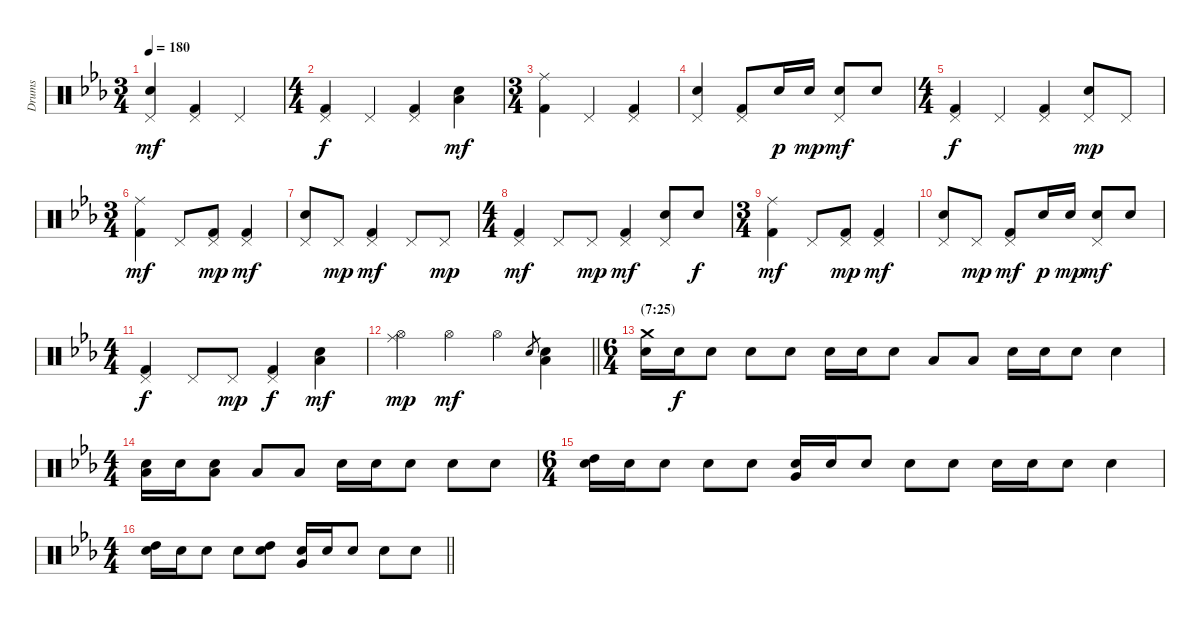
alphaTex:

\track ("Drums" "Drums") {instrument percussion}
\staff {score}
\articulation defaults
\ts (3 4)
\tempo 180
\clef neutral
\ks eb
("Pedal Hi-Hat (hit)" "Electric Snare (hit)").4{dy mf} ("Pedal Hi-Hat (hit)" "Kick (hit) 2").4 "Pedal Hi-Hat (hit)".4 |
\ts (4 4)
("Pedal Hi-Hat (hit)" "Kick (hit) 2").4{dy f} "Pedal Hi-Hat (hit)".4 ("Pedal Hi-Hat (hit)" "Kick (hit) 2").4 ("Low Floor Tom (hit)" "Electric Snare (hit)").4{dy mf} |
\ts (3 4)
("Ride (middle)" "Kick (hit) 2").4 "Pedal Hi-Hat (hit)".4 ("Pedal Hi-Hat (hit)" "Kick (hit) 2").4 |
("Pedal Hi-Hat (hit)" "Electric Snare (hit)").4 ("Pedal Hi-Hat (hit)" "Kick (hit) 2").8 "Electric Snare (hit)".16{dy p} "Electric Snare (hit)".16{dy mp} ("Pedal Hi-Hat (hit)" "Electric Snare (hit)").8{dy mf} "Electric Snare (hit)".8 |
\ts (4 4)
("Pedal Hi-Hat (hit)" "Kick (hit) 2").4{dy f} "Pedal Hi-Hat (hit)".4 ("Pedal Hi-Hat (hit)" "Kick (hit) 2").4 ("Pedal Hi-Hat (hit)" "Electric Snare (hit)").8{dy mp} "Pedal Hi-Hat (hit)".8 |
\ts (3 4)
("Ride (middle)" "Kick (hit) 2").4{dy mf} "Pedal Hi-Hat (hit)".8 ("Pedal Hi-Hat (hit)" "Kick (hit) 2").8{dy mp} ("Pedal Hi-Hat (hit)" "Kick (hit) 2").4{dy mf} |
("Pedal Hi-Hat (hit)" "Electric Snare (hit)").8 "Pedal Hi-Hat (hit)".8{dy mp} ("Pedal Hi-Hat (hit)" "Kick (hit) 2").4{dy mf} "Pedal Hi-Hat (hit)".8 "Pedal Hi-Hat (hit)".8{dy mp} |
\ts (4 4)
("Pedal Hi-Hat (hit)" "Kick (hit) 2").4{dy mf} "Pedal Hi-Hat (hit)".8 "Pedal Hi-Hat (hit)".8{dy mp} ("Pedal Hi-Hat (hit)" "Kick (hit) 2").4{dy mf} ("Pedal Hi-Hat (hit)" "Electric Snare (hit)").8 "Electric Snare (hit)".8{dy f} |
\ts (3 4)
("Ride (middle)" "Kick (hit) 2").4{dy mf} "Pedal Hi-Hat (hit)".8 ("Pedal Hi-Hat (hit)" "Kick (hit) 2").8{dy mp} ("Pedal Hi-Hat (hit)" "Kick (hit) 2").4{dy mf} |
("Pedal Hi-Hat (hit)" "Electric Snare (hit)").8 "Pedal Hi-Hat (hit)".8{dy mp} ("Pedal Hi-Hat (hit)" "Kick (hit) 2").8{dy mf} "Electric Snare (hit)".16{dy p} "Electric Snare (hit)".16{dy mp} ("Pedal Hi-Hat (hit)" "Electric Snare (hit)").8{dy mf} "Electric Snare (hit)".8 |
\ts (4 4)
("Pedal Hi-Hat (hit)" "Kick (hit) 2").4{dy f} "Pedal Hi-Hat (hit)".8 "Pedal Hi-Hat (hit)".8{dy mp} ("Pedal Hi-Hat (hit)" "Kick (hit) 2").4{dy f} ("Low Floor Tom (hit)" "Electric Snare (hit)").4{dy mf} |
\barLineRight lightlight
("Ride (middle)" "Hi-Hat (open)").4{dy mp} "Hi-Hat (open)".4{dy mf} "Hi-Hat (open)".4 "Electric Snare (hit)".8{gr} ("Low Tom (hit)" "Electric Snare (hit)").4 |
\ts (6 4)
\section ("" "(7:25)")
("Crash medium (hit)" "Electric Snare (hit)").16 "Electric Snare (hit)".16{dy f} "Electric Snare (hit)".8 "Electric Snare (hit)".8 "Electric Snare (hit)".8 "Electric Snare (hit)".16 "Electric Snare (hit)".16 "Electric Snare (hit)".8 "Low Floor Tom (hit)".8 "Low Tom (hit)".8 "Electric Snare (hit)".16 "Electric Snare (hit)".16 "Electric Snare (hit)".8 "Electric Snare (hit)".4 |
\ts (4 4)
("Low Floor Tom (hit)" "Electric Snare (hit)").16 "Electric Snare (hit)".16 ("Low Floor Tom (hit)" "Electric Snare (hit)").8 "Low Floor Tom (hit)".8 "Low Floor Tom (hit)".8 "Electric Snare (hit)".16 "Electric Snare (hit)".16 "Electric Snare (hit)".8 "Electric Snare (hit)".8 "Electric Snare (hit)".8 |
\ts (6 4)
("High Tom (hit)" "Electric Snare (hit)").16 "Electric Snare (hit)".16 "Electric Snare (hit)".8 "Electric Snare (hit)".8 "Electric Snare (hit)".8 ("Very Low Tom (hit)" "Electric Snare (hit)").16 "Electric Snare (hit)".16 "Electric Snare (hit)".8 "Electric Snare (hit)".8 "Electric Snare (hit)".8 "Electric Snare (hit)".16 "Electric Snare (hit)".16 "Electric Snare (hit)".8 "Electric Snare (hit)".4 |
\ts (4 4)
\barLineRight lightlight
("High Tom (hit)" "Electric Snare (hit)").16 "Electric Snare (hit)".16 "Electric Snare (hit)".8 "Electric Snare (hit)".8 ("High Tom (hit)" "Electric Snare (hit)").8 ("Very Low Tom (hit)" "Electric Snare (hit)").16 "Electric Snare (hit)".16 "Electric Snare (hit)".8 "Electric Snare (hit)".8 "Electric Snare (hit)".8
